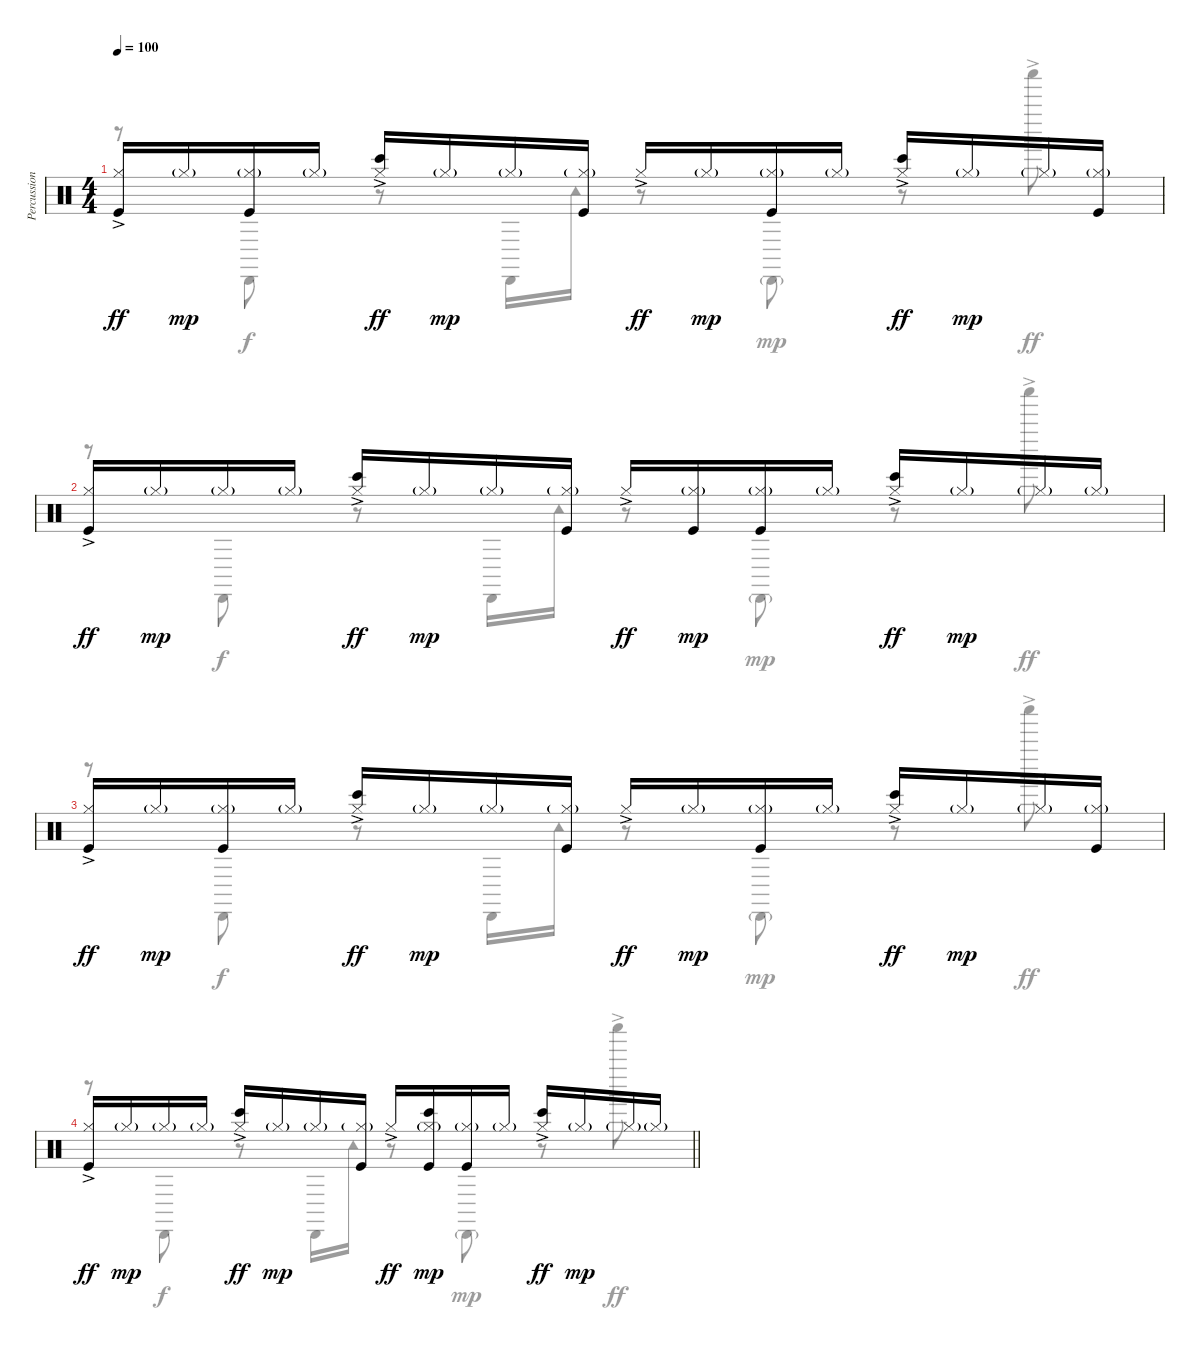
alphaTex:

\track ("Percussions" "Percussion") {instrument percussion}
\staff {score}
\articulation defaults
\voice
\ts (4 4)
\tempo 100
\clef neutral
\ks c
("Kick (hit)" "Hi-Hat (closed)"{ac}).16{dy ff} "Hi-Hat (closed)"{g}.16{dy mp} ("Kick (hit)" "Hi-Hat (closed)"{g}).16 "Hi-Hat (closed)"{g}.16 ("Bongo High (hit)" "Hi-Hat (closed)"{ac}).16{dy ff} "Hi-Hat (closed)"{g}.16{dy mp} "Hi-Hat (closed)"{g}.16 ("Kick (hit)" "Hi-Hat (closed)"{g}).16 "Hi-Hat (closed)"{ac}.16{dy ff} "Hi-Hat (closed)"{g}.16{dy mp} ("Kick (hit)" "Hi-Hat (closed)"{g}).16 "Hi-Hat (closed)"{g}.16 ("Bongo High (hit)" "Hi-Hat (closed)"{ac}).16{dy ff} "Hi-Hat (closed)"{g}.16{dy mp} "Hi-Hat (closed)"{g}.16 ("Kick (hit)" "Hi-Hat (closed)"{g}).16 |
("Kick (hit)" "Hi-Hat (closed)"{ac}).16{dy ff} "Hi-Hat (closed)"{g}.16{dy mp} "Hi-Hat (closed)"{g}.16 "Hi-Hat (closed)"{g}.16 ("Bongo High (hit)" "Hi-Hat (closed)"{ac}).16{dy ff} "Hi-Hat (closed)"{g}.16{dy mp} "Hi-Hat (closed)"{g}.16 ("Kick (hit)" "Hi-Hat (closed)"{g}).16 "Hi-Hat (closed)"{ac}.16{dy ff} ("Kick (hit)" "Hi-Hat (closed)"{g}).16{dy mp} ("Kick (hit)" "Hi-Hat (closed)"{g}).16 "Hi-Hat (closed)"{g}.16 ("Bongo High (hit)" "Hi-Hat (closed)"{ac}).16{dy ff} "Hi-Hat (closed)"{g}.16{dy mp} "Hi-Hat (closed)"{g}.16 "Hi-Hat (closed)"{g}.16 |
("Kick (hit)" "Hi-Hat (closed)"{ac}).16{dy ff} "Hi-Hat (closed)"{g}.16{dy mp} ("Kick (hit)" "Hi-Hat (closed)"{g}).16 "Hi-Hat (closed)"{g}.16 ("Bongo High (hit)" "Hi-Hat (closed)"{ac}).16{dy ff} "Hi-Hat (closed)"{g}.16{dy mp} "Hi-Hat (closed)"{g}.16 ("Kick (hit)" "Hi-Hat (closed)"{g}).16 "Hi-Hat (closed)"{ac}.16{dy ff} "Hi-Hat (closed)"{g}.16{dy mp} ("Kick (hit)" "Hi-Hat (closed)"{g}).16 "Hi-Hat (closed)"{g}.16 ("Bongo High (hit)" "Hi-Hat (closed)"{ac}).16{dy ff} "Hi-Hat (closed)"{g}.16{dy mp} "Hi-Hat (closed)"{g}.16 ("Kick (hit)" "Hi-Hat (closed)"{g}).16 |
\barLineRight lightlight
("Kick (hit)" "Hi-Hat (closed)"{ac}).16{dy ff} "Hi-Hat (closed)"{g}.16{dy mp} "Hi-Hat (closed)"{g}.16 "Hi-Hat (closed)"{g}.16 ("Bongo High (hit)" "Hi-Hat (closed)"{ac}).16{dy ff} "Hi-Hat (closed)"{g}.16{dy mp} "Hi-Hat (closed)"{g}.16 ("Kick (hit)" "Hi-Hat (closed)"{g}).16 "Hi-Hat (closed)"{ac}.16{dy ff} ("Kick (hit)" "Bongo High (hit)" "Hi-Hat (closed)"{g}).16{dy mp} ("Kick (hit)" "Hi-Hat (closed)"{g}).16 "Hi-Hat (closed)"{g}.16 ("Bongo High (hit)" "Hi-Hat (closed)"{ac}).16{dy ff} "Hi-Hat (closed)"{g}.16{dy mp} "Hi-Hat (closed)"{g}.16 "Hi-Hat (closed)"{g}.16
\voice
\clef neutral
\ottava regular
\simile none
\ks c
r.8{dy ff} "Cabasa (hit)".8{dy f} r.8 "Cabasa (hit)".16 "Tambourine (hit)".16 r.8 "Cabasa (hit)"{g}.8{dy mp} r.8 "Shaker (hit)"{ac}.8{dy ff} |
r.8 "Cabasa (hit)".8{dy f} r.8 "Cabasa (hit)".16 "Tambourine (hit)".16 r.8 "Cabasa (hit)"{g}.8{dy mp} r.8 "Shaker (hit)"{ac}.8{dy ff} |
r.8 "Cabasa (hit)".8{dy f} r.8 "Cabasa (hit)".16 "Tambourine (hit)".16 r.8 "Cabasa (hit)"{g}.8{dy mp} r.8 "Shaker (hit)"{ac}.8{dy ff} |
\barLineRight lightlight
r.8 "Cabasa (hit)".8{dy f} r.8 "Cabasa (hit)".16 "Tambourine (hit)".16 r.8 "Cabasa (hit)"{g}.8{dy mp} r.8 "Shaker (hit)"{ac}.8{dy ff}
